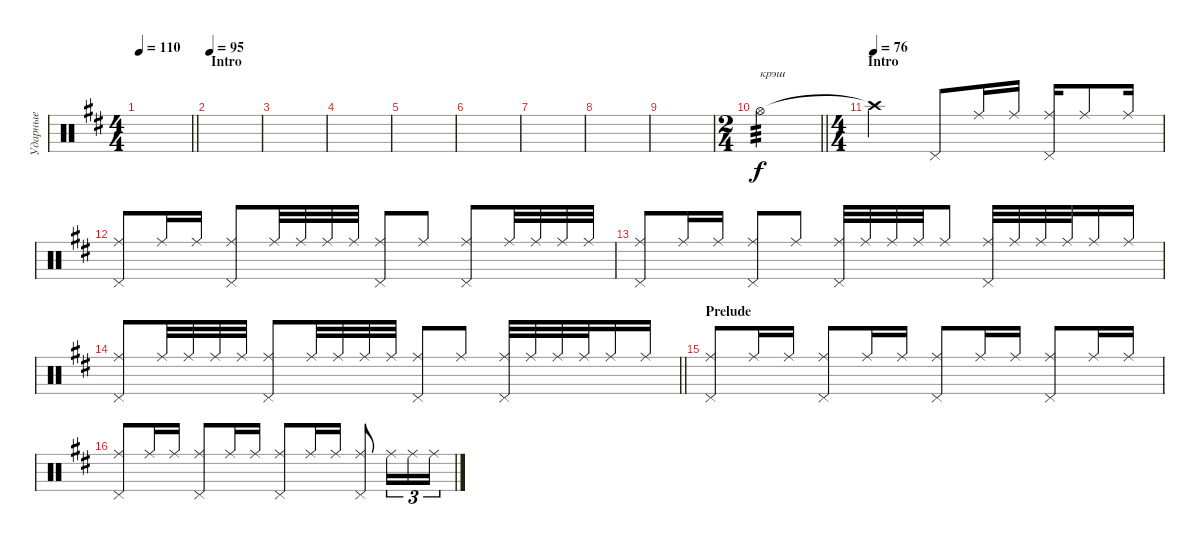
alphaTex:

\track ("Ударные" "Ударные") {instrument percussion}
\staff {score}
\articulation defaults
\ts (4 4)
\tempo 110
\clef neutral
\barLineRight lightlight
\ks d
|
\section ("" "Intro")
\tempo 95
|
|
|
|
|
|
|
|
\ts (2 4)
\barLineRight lightlight "Hi-Hat (open)".2{txt "крэш" tp 3 volume 14}
|
\ts (4 4)
\section ("" "Intro")
\tempo (76)
"Crash high (hit)"{t}.2{dy f} "Pedal Hi-Hat (hit)".8 "Ride (middle)".16 "Ride (middle)".16 ("Ride (middle)" "Pedal Hi-Hat (hit)").16 "Ride (middle)".8 "Ride (middle)".16 |
("Ride (middle)" "Pedal Hi-Hat (hit)").8 "Ride (middle)".16 "Ride (middle)".16 ("Ride (middle)" "Pedal Hi-Hat (hit)").8 "Ride (middle)".32 "Ride (middle)".32 "Ride (middle)".32 "Ride (middle)".32 ("Ride (middle)" "Pedal Hi-Hat (hit)").8 "Ride (middle)".8 ("Ride (middle)" "Pedal Hi-Hat (hit)").8 "Ride (middle)".32 "Ride (middle)".32 "Ride (middle)".32 "Ride (middle)".32 |
("Pedal Hi-Hat (hit)" "Ride (middle)").8 "Ride (middle)".16 "Ride (middle)".16 ("Ride (middle)" "Pedal Hi-Hat (hit)").8 "Ride (middle)".8 ("Ride (middle)" "Pedal Hi-Hat (hit)").32 "Ride (middle)".32 "Ride (middle)".32 "Ride (middle)".32 "Ride (middle)".8 ("Ride (middle)" "Pedal Hi-Hat (hit)").32 "Ride (middle)".32 "Ride (middle)".32 "Ride (middle)".32 "Ride (middle)".16 "Ride (middle)".16 |
\barLineRight lightlight
("Ride (middle)" "Pedal Hi-Hat (hit)").8 "Ride (middle)".32 "Ride (middle)".32 "Ride (middle)".32 "Ride (middle)".32 ("Ride (middle)" "Pedal Hi-Hat (hit)").8 "Ride (middle)".32 "Ride (middle)".32 "Ride (middle)".32 "Ride (middle)".32 ("Ride (middle)" "Pedal Hi-Hat (hit)").8 "Ride (middle)".8 ("Ride (middle)" "Pedal Hi-Hat (hit)").32 "Ride (middle)".32 "Ride (middle)".32 "Ride (middle)".32 "Ride (middle)".16 "Ride (middle)".16 |
\section ("" "Prelude")
("Ride (middle)" "Pedal Hi-Hat (hit)").8 "Ride (middle)".16 "Ride (middle)".16 ("Pedal Hi-Hat (hit)" "Ride (middle)").8 "Ride (middle)".16 "Ride (middle)".16 ("Ride (middle)" "Pedal Hi-Hat (hit)").8 "Ride (middle)".16 "Ride (middle)".16 ("Ride (middle)" "Pedal Hi-Hat (hit)").8 "Ride (middle)".16 "Ride (middle)".16 |
("Ride (middle)" "Pedal Hi-Hat (hit)").8 "Ride (middle)".16 "Ride (middle)".16 ("Ride (middle)" "Pedal Hi-Hat (hit)").8 "Ride (middle)".16 "Ride (middle)".16 ("Ride (middle)" "Pedal Hi-Hat (hit)").8 "Ride (middle)".16 "Ride (middle)".16 ("Ride (middle)" "Pedal Hi-Hat (hit)").8 "Ride (middle)".16{tu (3 2)} "Ride (middle)".16{tu (3 2)} "Ride (middle)".16{tu (3 2)}
